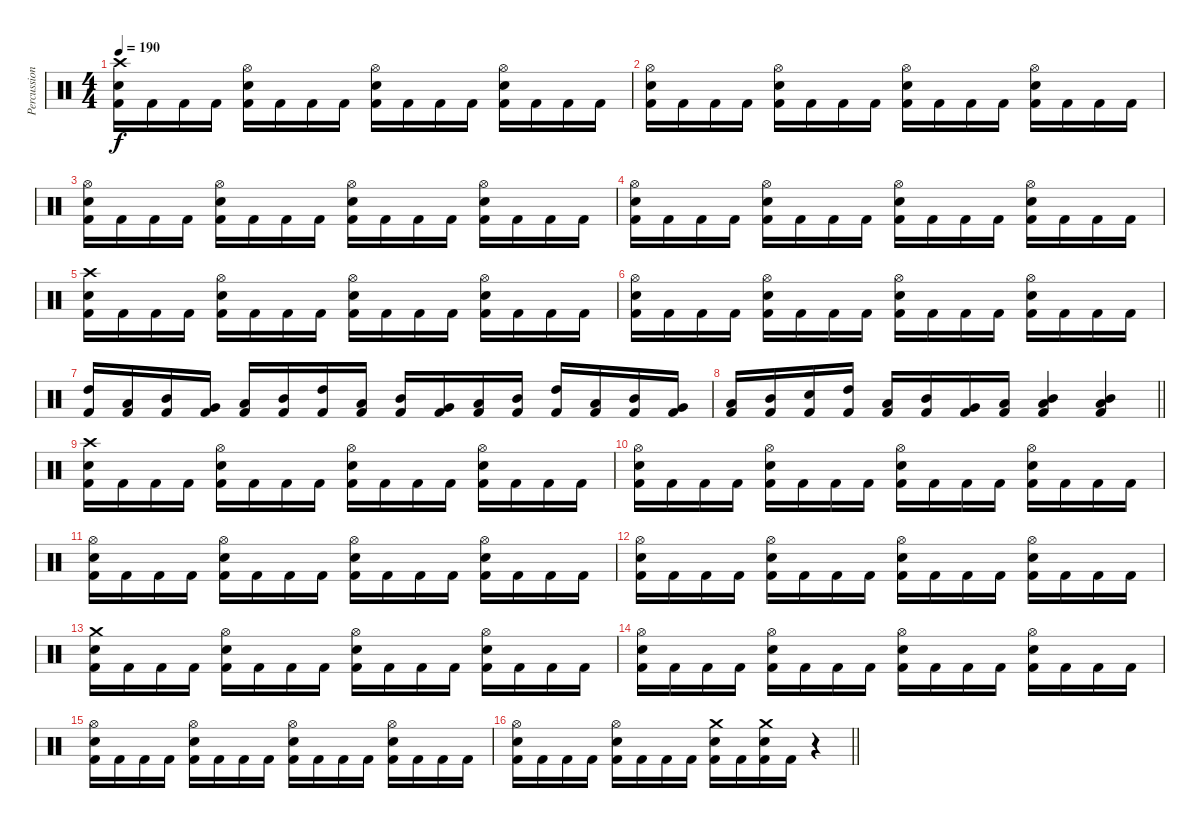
\track ("Percussion" "Percussion") {instrument percussion}
\staff {score}
\articulation defaults
\ts (4 4)
\tempo 190
\clef neutral
\ks c
("Crash high (hit)" "Snare (hit) 2" "Kick (hit) 2").16{dy f} "Kick (hit) 2".16 "Kick (hit) 2".16 "Kick (hit) 2".16 ("Hi-Hat (open)" "Snare (hit) 2" "Kick (hit) 2").16 "Kick (hit) 2".16 "Kick (hit) 2".16 "Kick (hit) 2".16 ("Hi-Hat (open)" "Snare (hit) 2" "Kick (hit) 2").16 "Kick (hit) 2".16 "Kick (hit) 2".16 "Kick (hit) 2".16 ("Hi-Hat (open)" "Snare (hit) 2" "Kick (hit) 2").16 "Kick (hit) 2".16 "Kick (hit) 2".16 "Kick (hit) 2".16 |
("Hi-Hat (open)" "Snare (hit) 2" "Kick (hit) 2").16 "Kick (hit) 2".16 "Kick (hit) 2".16 "Kick (hit) 2".16 ("Hi-Hat (open)" "Snare (hit) 2" "Kick (hit) 2").16 "Kick (hit) 2".16 "Kick (hit) 2".16 "Kick (hit) 2".16 ("Hi-Hat (open)" "Snare (hit) 2" "Kick (hit) 2").16 "Kick (hit) 2".16 "Kick (hit) 2".16 "Kick (hit) 2".16 ("Hi-Hat (open)" "Snare (hit) 2" "Kick (hit) 2").16 "Kick (hit) 2".16 "Kick (hit) 2".16 "Kick (hit) 2".16 |
("Hi-Hat (open)" "Snare (hit) 2" "Kick (hit) 2").16 "Kick (hit) 2".16 "Kick (hit) 2".16 "Kick (hit) 2".16 ("Hi-Hat (open)" "Snare (hit) 2" "Kick (hit) 2").16 "Kick (hit) 2".16 "Kick (hit) 2".16 "Kick (hit) 2".16 ("Hi-Hat (open)" "Snare (hit) 2" "Kick (hit) 2").16 "Kick (hit) 2".16 "Kick (hit) 2".16 "Kick (hit) 2".16 ("Hi-Hat (open)" "Snare (hit) 2" "Kick (hit) 2").16 "Kick (hit) 2".16 "Kick (hit) 2".16 "Kick (hit) 2".16 |
("Hi-Hat (open)" "Snare (hit) 2" "Kick (hit) 2").16 "Kick (hit) 2".16 "Kick (hit) 2".16 "Kick (hit) 2".16 ("Hi-Hat (open)" "Snare (hit) 2" "Kick (hit) 2").16 "Kick (hit) 2".16 "Kick (hit) 2".16 "Kick (hit) 2".16 ("Hi-Hat (open)" "Snare (hit) 2" "Kick (hit) 2").16 "Kick (hit) 2".16 "Kick (hit) 2".16 "Kick (hit) 2".16 ("Hi-Hat (open)" "Snare (hit) 2" "Kick (hit) 2").16 "Kick (hit) 2".16 "Kick (hit) 2".16 "Kick (hit) 2".16 |
("Crash high (hit)" "Snare (hit) 2" "Kick (hit) 2").16 "Kick (hit) 2".16 "Kick (hit) 2".16 "Kick (hit) 2".16 ("Hi-Hat (open)" "Snare (hit) 2" "Kick (hit) 2").16 "Kick (hit) 2".16 "Kick (hit) 2".16 "Kick (hit) 2".16 ("Hi-Hat (open)" "Snare (hit) 2" "Kick (hit) 2").16 "Kick (hit) 2".16 "Kick (hit) 2".16 "Kick (hit) 2".16 ("Hi-Hat (open)" "Snare (hit) 2" "Kick (hit) 2").16 "Kick (hit) 2".16 "Kick (hit) 2".16 "Kick (hit) 2".16 |
("Hi-Hat (open)" "Snare (hit) 2" "Kick (hit) 2").16 "Kick (hit) 2".16 "Kick (hit) 2".16 "Kick (hit) 2".16 ("Hi-Hat (open)" "Snare (hit) 2" "Kick (hit) 2").16 "Kick (hit) 2".16 "Kick (hit) 2".16 "Kick (hit) 2".16 ("Hi-Hat (open)" "Snare (hit) 2" "Kick (hit) 2").16 "Kick (hit) 2".16 "Kick (hit) 2".16 "Kick (hit) 2".16 ("Hi-Hat (open)" "Snare (hit) 2" "Kick (hit) 2").16 "Kick (hit) 2".16 "Kick (hit) 2".16 "Kick (hit) 2".16 |
("High Tom (hit)" "Kick (hit) 2").16 ("Low Tom (hit)" "Kick (hit) 2").16 ("Mid Tom (hit)" "Kick (hit) 2").16 ("Very Low Tom (hit)" "Kick (hit) 2").16 ("Low Tom (hit)" "Kick (hit) 2").16 ("Mid Tom (hit)" "Kick (hit) 2").16 ("High Tom (hit)" "Kick (hit) 2").16 ("Low Tom (hit)" "Kick (hit) 2").16 ("Mid Tom (hit)" "Kick (hit) 2").16 ("Very Low Tom (hit)" "Kick (hit) 2").16 ("Low Tom (hit)" "Kick (hit) 2").16 ("Mid Tom (hit)" "Kick (hit) 2").16 ("High Tom (hit)" "Kick (hit) 2").16 ("Low Tom (hit)" "Kick (hit) 2").16 ("Mid Tom (hit)" "Kick (hit) 2").16 ("Very Low Tom (hit)" "Kick (hit) 2").16 |
\barLineRight lightlight
("Low Tom (hit)" "Kick (hit) 2").16 ("Mid Tom (hit)" "Kick (hit) 2").16 ("Snare (hit) 2" "Kick (hit) 2").16 ("High Tom (hit)" "Kick (hit) 2").16 ("Low Tom (hit)" "Kick (hit) 2").16 ("Mid Tom (hit)" "Kick (hit) 2").16 ("Very Low Tom (hit)" "Kick (hit) 2").16 ("Low Tom (hit)" "Kick (hit) 2").16 ("Mid Tom (hit)" "Low Tom (hit)" "Kick (hit) 2").4 ("Mid Tom (hit)" "Low Tom (hit)" "Kick (hit) 2").4 |
("Crash high (hit)" "Snare (hit) 2" "Kick (hit) 2").16 "Kick (hit) 2".16 "Kick (hit) 2".16 "Kick (hit) 2".16 ("Hi-Hat (open)" "Snare (hit) 2" "Kick (hit) 2").16 "Kick (hit) 2".16 "Kick (hit) 2".16 "Kick (hit) 2".16 ("Hi-Hat (open)" "Snare (hit) 2" "Kick (hit) 2").16 "Kick (hit) 2".16 "Kick (hit) 2".16 "Kick (hit) 2".16 ("Hi-Hat (open)" "Snare (hit) 2" "Kick (hit) 2").16 "Kick (hit) 2".16 "Kick (hit) 2".16 "Kick (hit) 2".16 |
("Hi-Hat (open)" "Snare (hit) 2" "Kick (hit) 2").16 "Kick (hit) 2".16 "Kick (hit) 2".16 "Kick (hit) 2".16 ("Hi-Hat (open)" "Snare (hit) 2" "Kick (hit) 2").16 "Kick (hit) 2".16 "Kick (hit) 2".16 "Kick (hit) 2".16 ("Hi-Hat (open)" "Snare (hit) 2" "Kick (hit) 2").16 "Kick (hit) 2".16 "Kick (hit) 2".16 "Kick (hit) 2".16 ("Hi-Hat (open)" "Snare (hit) 2" "Kick (hit) 2").16 "Kick (hit) 2".16 "Kick (hit) 2".16 "Kick (hit) 2".16 |
("Hi-Hat (open)" "Snare (hit) 2" "Kick (hit) 2").16 "Kick (hit) 2".16 "Kick (hit) 2".16 "Kick (hit) 2".16 ("Hi-Hat (open)" "Snare (hit) 2" "Kick (hit) 2").16 "Kick (hit) 2".16 "Kick (hit) 2".16 "Kick (hit) 2".16 ("Hi-Hat (open)" "Snare (hit) 2" "Kick (hit) 2").16 "Kick (hit) 2".16 "Kick (hit) 2".16 "Kick (hit) 2".16 ("Hi-Hat (open)" "Snare (hit) 2" "Kick (hit) 2").16 "Kick (hit) 2".16 "Kick (hit) 2".16 "Kick (hit) 2".16 |
("Hi-Hat (open)" "Snare (hit) 2" "Kick (hit) 2").16 "Kick (hit) 2".16 "Kick (hit) 2".16 "Kick (hit) 2".16 ("Hi-Hat (open)" "Snare (hit) 2" "Kick (hit) 2").16 "Kick (hit) 2".16 "Kick (hit) 2".16 "Kick (hit) 2".16 ("Hi-Hat (open)" "Snare (hit) 2" "Kick (hit) 2").16 "Kick (hit) 2".16 "Kick (hit) 2".16 "Kick (hit) 2".16 ("Hi-Hat (open)" "Snare (hit) 2" "Kick (hit) 2").16 "Kick (hit) 2".16 "Kick (hit) 2".16 "Kick (hit) 2".16 |
("Crash medium (hit)" "Snare (hit) 2" "Kick (hit) 2").16 "Kick (hit) 2".16 "Kick (hit) 2".16 "Kick (hit) 2".16 ("Hi-Hat (open)" "Snare (hit) 2" "Kick (hit) 2").16 "Kick (hit) 2".16 "Kick (hit) 2".16 "Kick (hit) 2".16 ("Hi-Hat (open)" "Snare (hit) 2" "Kick (hit) 2").16 "Kick (hit) 2".16 "Kick (hit) 2".16 "Kick (hit) 2".16 ("Hi-Hat (open)" "Snare (hit) 2" "Kick (hit) 2").16 "Kick (hit) 2".16 "Kick (hit) 2".16 "Kick (hit) 2".16 |
("Hi-Hat (open)" "Snare (hit) 2" "Kick (hit) 2").16 "Kick (hit) 2".16 "Kick (hit) 2".16 "Kick (hit) 2".16 ("Hi-Hat (open)" "Snare (hit) 2" "Kick (hit) 2").16 "Kick (hit) 2".16 "Kick (hit) 2".16 "Kick (hit) 2".16 ("Hi-Hat (open)" "Snare (hit) 2" "Kick (hit) 2").16 "Kick (hit) 2".16 "Kick (hit) 2".16 "Kick (hit) 2".16 ("Hi-Hat (open)" "Snare (hit) 2" "Kick (hit) 2").16 "Kick (hit) 2".16 "Kick (hit) 2".16 "Kick (hit) 2".16 |
("Hi-Hat (open)" "Snare (hit) 2" "Kick (hit) 2").16 "Kick (hit) 2".16 "Kick (hit) 2".16 "Kick (hit) 2".16 ("Hi-Hat (open)" "Snare (hit) 2" "Kick (hit) 2").16 "Kick (hit) 2".16 "Kick (hit) 2".16 "Kick (hit) 2".16 ("Hi-Hat (open)" "Snare (hit) 2" "Kick (hit) 2").16 "Kick (hit) 2".16 "Kick (hit) 2".16 "Kick (hit) 2".16 ("Hi-Hat (open)" "Snare (hit) 2" "Kick (hit) 2").16 "Kick (hit) 2".16 "Kick (hit) 2".16 "Kick (hit) 2".16 |
\barLineRight lightlight
("Hi-Hat (open)" "Snare (hit) 2" "Kick (hit) 2").16 "Kick (hit) 2".16 "Kick (hit) 2".16 "Kick (hit) 2".16 ("Hi-Hat (open)" "Snare (hit) 2" "Kick (hit) 2").16 "Kick (hit) 2".16 "Kick (hit) 2".16 "Kick (hit) 2".16 ("Crash medium (hit)" "Snare (hit) 2" "Kick (hit) 2").16 "Kick (hit) 2".16 ("Crash medium (hit)" "Snare (hit) 2" "Kick (hit) 2").16 "Kick (hit) 2".16 r.4
